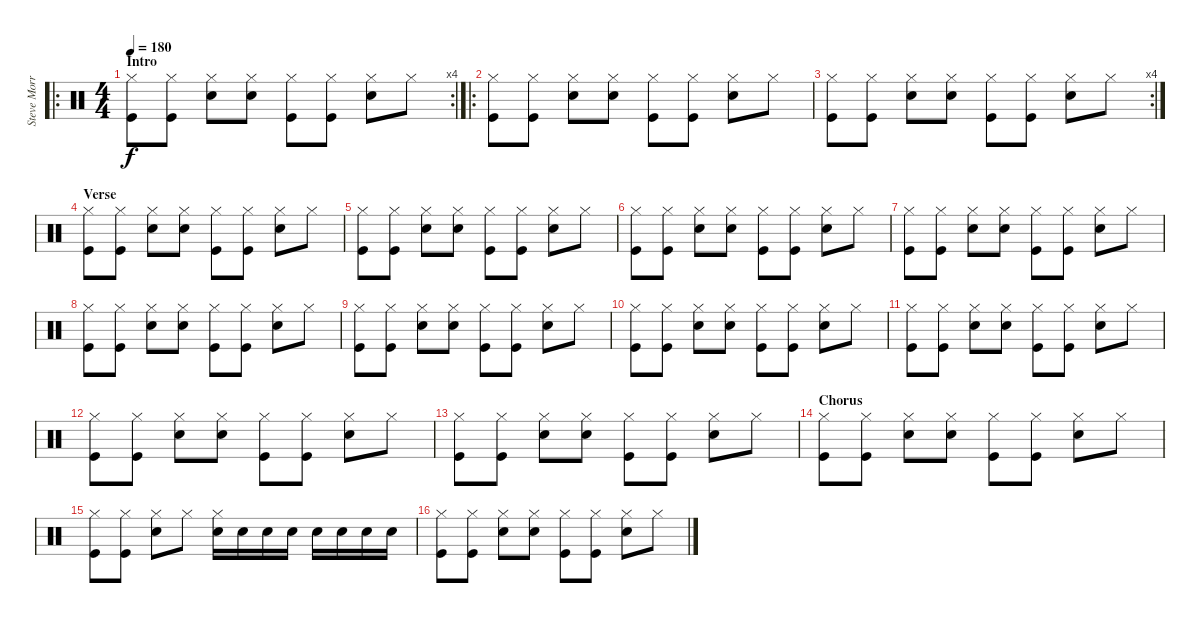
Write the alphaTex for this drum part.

\track ("Steve Morris" "Steve Morr") {instrument percussion}
\staff {score}
\articulation defaults
\ro
\rc 4
\ts (4 4)
\section ("" "Intro")
\tempo 180
\clef neutral
\ks c
("Hi-Hat (closed)" "Kick (hit)").8{dy f} ("Hi-Hat (closed)" "Kick (hit)").8 ("Hi-Hat (closed)" "Electric Snare (hit)").8 ("Hi-Hat (closed)" "Electric Snare (hit)").8 ("Hi-Hat (closed)" "Kick (hit)").8 ("Hi-Hat (closed)" "Kick (hit)").8 ("Hi-Hat (closed)" "Hand Clap (hit)").8 "Hi-Hat (closed)".8 |
\ro
("Hi-Hat (closed)" "Kick (hit)").8 ("Hi-Hat (closed)" "Kick (hit)").8 ("Hi-Hat (closed)" "Electric Snare (hit)").8 ("Hi-Hat (closed)" "Electric Snare (hit)").8 ("Hi-Hat (closed)" "Kick (hit)").8 ("Hi-Hat (closed)" "Kick (hit)").8 ("Hi-Hat (closed)" "Electric Snare (hit)").8 "Hi-Hat (closed)".8 |
\rc 4
("Hi-Hat (closed)" "Kick (hit)").8 ("Hi-Hat (closed)" "Kick (hit)").8 ("Hi-Hat (closed)" "Electric Snare (hit)").8 ("Hi-Hat (closed)" "Electric Snare (hit)").8 ("Hi-Hat (closed)" "Kick (hit)").8 ("Hi-Hat (closed)" "Kick (hit)").8 ("Hi-Hat (closed)" "Electric Snare (hit)").8 "Hi-Hat (closed)".8 |
\section ("" "Verse")
("Hi-Hat (closed)" "Kick (hit)").8 ("Hi-Hat (closed)" "Kick (hit)").8 ("Hi-Hat (closed)" "Electric Snare (hit)").8 ("Hi-Hat (closed)" "Electric Snare (hit)").8 ("Hi-Hat (closed)" "Kick (hit)").8 ("Hi-Hat (closed)" "Kick (hit)").8 ("Hi-Hat (closed)" "Electric Snare (hit)").8 "Hi-Hat (closed)".8 |
("Hi-Hat (closed)" "Kick (hit)").8 ("Hi-Hat (closed)" "Kick (hit)").8 ("Hi-Hat (closed)" "Electric Snare (hit)").8 ("Hi-Hat (closed)" "Electric Snare (hit)").8 ("Hi-Hat (closed)" "Kick (hit)").8 ("Hi-Hat (closed)" "Kick (hit)").8 ("Hi-Hat (closed)" "Electric Snare (hit)").8 "Hi-Hat (closed)".8 |
("Hi-Hat (closed)" "Kick (hit)").8 ("Hi-Hat (closed)" "Kick (hit)").8 ("Hi-Hat (closed)" "Electric Snare (hit)").8 ("Hi-Hat (closed)" "Electric Snare (hit)").8 ("Hi-Hat (closed)" "Kick (hit)").8 ("Hi-Hat (closed)" "Kick (hit)").8 ("Hi-Hat (closed)" "Electric Snare (hit)").8 "Hi-Hat (closed)".8 |
("Hi-Hat (closed)" "Kick (hit)").8 ("Hi-Hat (closed)" "Kick (hit)").8 ("Hi-Hat (closed)" "Electric Snare (hit)").8 ("Hi-Hat (closed)" "Electric Snare (hit)").8 ("Hi-Hat (closed)" "Kick (hit)").8 ("Hi-Hat (closed)" "Kick (hit)").8 ("Hi-Hat (closed)" "Electric Snare (hit)").8 "Hi-Hat (closed)".8 |
("Hi-Hat (closed)" "Kick (hit)").8 ("Hi-Hat (closed)" "Kick (hit)").8 ("Hi-Hat (closed)" "Electric Snare (hit)").8 ("Hi-Hat (closed)" "Electric Snare (hit)").8 ("Hi-Hat (closed)" "Kick (hit)").8 ("Hi-Hat (closed)" "Kick (hit)").8 ("Hi-Hat (closed)" "Electric Snare (hit)").8 "Hi-Hat (closed)".8 |
("Hi-Hat (closed)" "Kick (hit)").8 ("Hi-Hat (closed)" "Kick (hit)").8 ("Hi-Hat (closed)" "Electric Snare (hit)").8 ("Hi-Hat (closed)" "Electric Snare (hit)").8 ("Hi-Hat (closed)" "Kick (hit)").8 ("Hi-Hat (closed)" "Kick (hit)").8 ("Hi-Hat (closed)" "Electric Snare (hit)").8 "Hi-Hat (closed)".8 |
("Hi-Hat (closed)" "Kick (hit)").8 ("Hi-Hat (closed)" "Kick (hit)").8 ("Hi-Hat (closed)" "Electric Snare (hit)").8 ("Hi-Hat (closed)" "Electric Snare (hit)").8 ("Hi-Hat (closed)" "Kick (hit)").8 ("Hi-Hat (closed)" "Kick (hit)").8 ("Hi-Hat (closed)" "Electric Snare (hit)").8 "Hi-Hat (closed)".8 |
("Hi-Hat (closed)" "Kick (hit)").8 ("Hi-Hat (closed)" "Kick (hit)").8 ("Hi-Hat (closed)" "Electric Snare (hit)").8 ("Hi-Hat (closed)" "Electric Snare (hit)").8 ("Hi-Hat (closed)" "Kick (hit)").8 ("Hi-Hat (closed)" "Kick (hit)").8 ("Hi-Hat (closed)" "Electric Snare (hit)").8 "Hi-Hat (closed)".8 |
("Hi-Hat (closed)" "Kick (hit)").8 ("Hi-Hat (closed)" "Kick (hit)").8 ("Hi-Hat (closed)" "Electric Snare (hit)").8 ("Hi-Hat (closed)" "Electric Snare (hit)").8 ("Hi-Hat (closed)" "Kick (hit)").8 ("Hi-Hat (closed)" "Kick (hit)").8 ("Hi-Hat (closed)" "Electric Snare (hit)").8 "Hi-Hat (closed)".8 |
("Hi-Hat (closed)" "Kick (hit)").8 ("Hi-Hat (closed)" "Kick (hit)").8 ("Hi-Hat (closed)" "Electric Snare (hit)").8 ("Hi-Hat (closed)" "Electric Snare (hit)").8 ("Hi-Hat (closed)" "Kick (hit)").8 ("Hi-Hat (closed)" "Kick (hit)").8 ("Hi-Hat (closed)" "Electric Snare (hit)").8 "Hi-Hat (closed)".8 |
\section ("" "Chorus")
("Hi-Hat (closed)" "Kick (hit)").8 ("Hi-Hat (closed)" "Kick (hit)").8 ("Hi-Hat (closed)" "Electric Snare (hit)").8 ("Hi-Hat (closed)" "Electric Snare (hit)").8 ("Hi-Hat (closed)" "Kick (hit)").8 ("Hi-Hat (closed)" "Kick (hit)").8 ("Hi-Hat (closed)" "Electric Snare (hit)").8 "Hi-Hat (closed)".8 |
("Hi-Hat (closed)" "Kick (hit)").8 ("Hi-Hat (closed)" "Kick (hit)").8 ("Hi-Hat (closed)" "Electric Snare (hit)").8 "Hi-Hat (closed)".8 ("Hi-Hat (closed)" "Electric Snare (hit)").16 "Electric Snare (hit)".16 "Electric Snare (hit)".16 "Electric Snare (hit)".16 "Electric Snare (hit)".16 "Electric Snare (hit)".16 "Electric Snare (hit)".16 "Electric Snare (hit)".16 |
("Hi-Hat (closed)" "Kick (hit)").8 ("Hi-Hat (closed)" "Kick (hit)").8 ("Hi-Hat (closed)" "Electric Snare (hit)").8 ("Hi-Hat (closed)" "Electric Snare (hit)").8 ("Hi-Hat (closed)" "Kick (hit)").8 ("Hi-Hat (closed)" "Kick (hit)").8 ("Hi-Hat (closed)" "Electric Snare (hit)").8 "Hi-Hat (closed)".8
